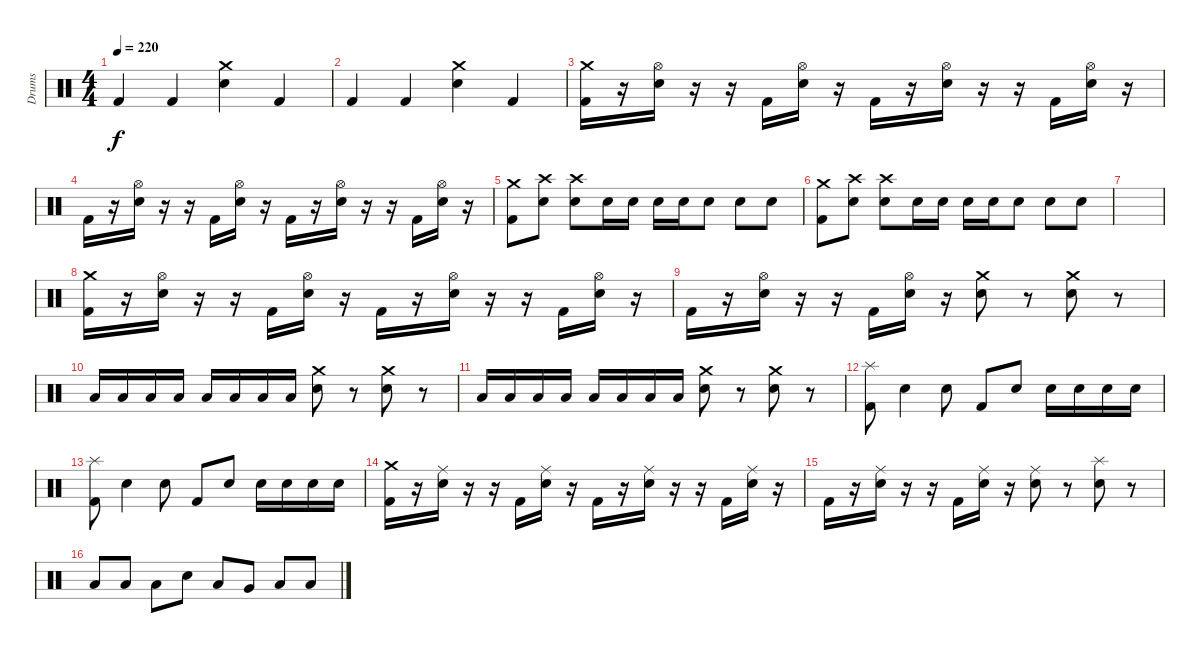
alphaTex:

\track ("Drums" "Drums") {instrument percussion}
\staff {score}
\articulation defaults
\ts (4 4)
\tempo 220
\clef neutral
\ks c "Kick (hit) 2".4{dy f} "Kick (hit) 2".4
("Crash medium (hit)" "Snare (hit) 2").4 "Kick (hit) 2".4 |
"Kick (hit) 2".4 "Kick (hit) 2".4 ("Crash medium (hit)" "Snare (hit) 2").4 "Kick (hit) 2".4 |
("Crash medium (hit)" "Kick (hit) 2").16 r.16 ("Hi-Hat (open)" "Snare (hit) 2").16 r.16 r.16 "Kick (hit) 2".16 ("Hi-Hat (open)" "Snare (hit) 2").16 r.16 "Kick (hit) 2".16 r.16 ("Hi-Hat (open)" "Snare (hit) 2").16 r.16 r.16 "Kick (hit) 2".16 ("Hi-Hat (open)" "Snare (hit) 2").16 r.16 |
"Kick (hit) 2".16 r.16 ("Hi-Hat (open)" "Snare (hit) 2").16 r.16 r.16 "Kick (hit) 2".16 ("Hi-Hat (open)" "Snare (hit) 2").16 r.16 "Kick (hit) 2".16 r.16 ("Hi-Hat (open)" "Snare (hit) 2").16 r.16 r.16 "Kick (hit) 2".16 ("Hi-Hat (open)" "Snare (hit) 2").16 r.16 |
("Crash medium (hit)" "Kick (hit) 2").8 ("Crash high (hit)" "Snare (hit) 2").8 ("Crash high (hit)" "Snare (hit) 2").8 "Snare (hit) 2".16 "Snare (hit) 2".16 "Snare (hit) 2".16 "Snare (hit) 2".16 "Snare (hit) 2".8 "Snare (hit) 2".8 "Snare (hit) 2".8 |
("Crash medium (hit)" "Kick (hit) 2").8 ("Crash high (hit)" "Snare (hit) 2").8 ("Crash high (hit)" "Snare (hit) 2").8 "Snare (hit) 2".16 "Snare (hit) 2".16 "Snare (hit) 2".16 "Snare (hit) 2".16 "Snare (hit) 2".8 "Snare (hit) 2".8 "Snare (hit) 2".8 |
|
("Crash medium (hit)" "Kick (hit) 2").16 r.16 ("Hi-Hat (open)" "Snare (hit) 2").16 r.16 r.16 "Kick (hit) 2".16 ("Hi-Hat (open)" "Snare (hit) 2").16 r.16 "Kick (hit) 2".16 r.16 ("Hi-Hat (open)" "Snare (hit) 2").16 r.16 r.16 "Kick (hit) 2".16 ("Hi-Hat (open)" "Snare (hit) 2").16 r.16 |
"Kick (hit) 2".16 r.16 ("Hi-Hat (open)" "Snare (hit) 2").16 r.16 r.16 "Kick (hit) 2".16 ("Hi-Hat (open)" "Snare (hit) 2").16 r.16 ("Crash medium (hit)" "Snare (hit) 2").8 r.8 ("Crash medium (hit)" "Snare (hit) 2").8 r.8 |
"Low Floor Tom (hit)".16 "Low Floor Tom (hit)".16 "Low Floor Tom (hit)".16 "Low Floor Tom (hit)".16 "Low Floor Tom (hit)".16 "Low Floor Tom (hit)".16 "Low Floor Tom (hit)".16 "Low Floor Tom (hit)".16 ("Crash medium (hit)" "Snare (hit) 2").8 r.8 ("Crash medium (hit)" "Snare (hit) 2").8 r.8 |
"Low Floor Tom (hit)".16 "Low Floor Tom (hit)".16 "Low Floor Tom (hit)".16 "Low Floor Tom (hit)".16 "Low Floor Tom (hit)".16 "Low Floor Tom (hit)".16 "Low Floor Tom (hit)".16 "Low Floor Tom (hit)".16 ("Crash medium (hit)" "Snare (hit) 2").8 r.8 ("Crash medium (hit)" "Snare (hit) 2").8 r.8 |
("Splash (hit)" "Kick (hit) 2").8 "Snare (hit) 2".4 "Snare (hit) 2".8 "Kick (hit) 2".8 "Snare (hit) 2".8 "Snare (hit) 2".16 "Snare (hit) 2".16 "Snare (hit) 2".16 "Snare (hit) 2".16 |
("Splash (hit)" "Kick (hit) 2").8 "Snare (hit) 2".4 "Snare (hit) 2".8 "Kick (hit) 2".8 "Snare (hit) 2".8 "Snare (hit) 2".16 "Snare (hit) 2".16 "Snare (hit) 2".16 "Snare (hit) 2".16 |
("Crash medium (hit)" "Kick (hit) 2").16 r.16 ("Ride (middle)" "Snare (hit) 2").16 r.16 r.16 "Kick (hit) 2".16 ("Ride (middle)" "Snare (hit) 2").16 r.16 "Kick (hit) 2".16 r.16 ("Ride (middle)" "Snare (hit) 2").16 r.16 r.16 "Kick (hit) 2".16 ("Ride (middle)" "Snare (hit) 2").16 r.16 |
"Kick (hit) 2".16 r.16 ("Ride (middle)" "Snare (hit) 2").16 r.16 r.16 "Kick (hit) 2".16 ("Ride (middle)" "Snare (hit) 2").16 r.16 ("Ride (middle)" "Snare (hit) 2").8 r.8 ("Splash (hit)" "Snare (hit) 2").8 r.8 |
"Low Floor Tom (hit)".8 "Low Floor Tom (hit)".8 "Low Floor Tom (hit)".8 "Snare (hit) 2".8 "Low Floor Tom (hit)".8 "Very Low Tom (hit)".8 "Low Floor Tom (hit)".8 "Low Floor Tom (hit)".8
